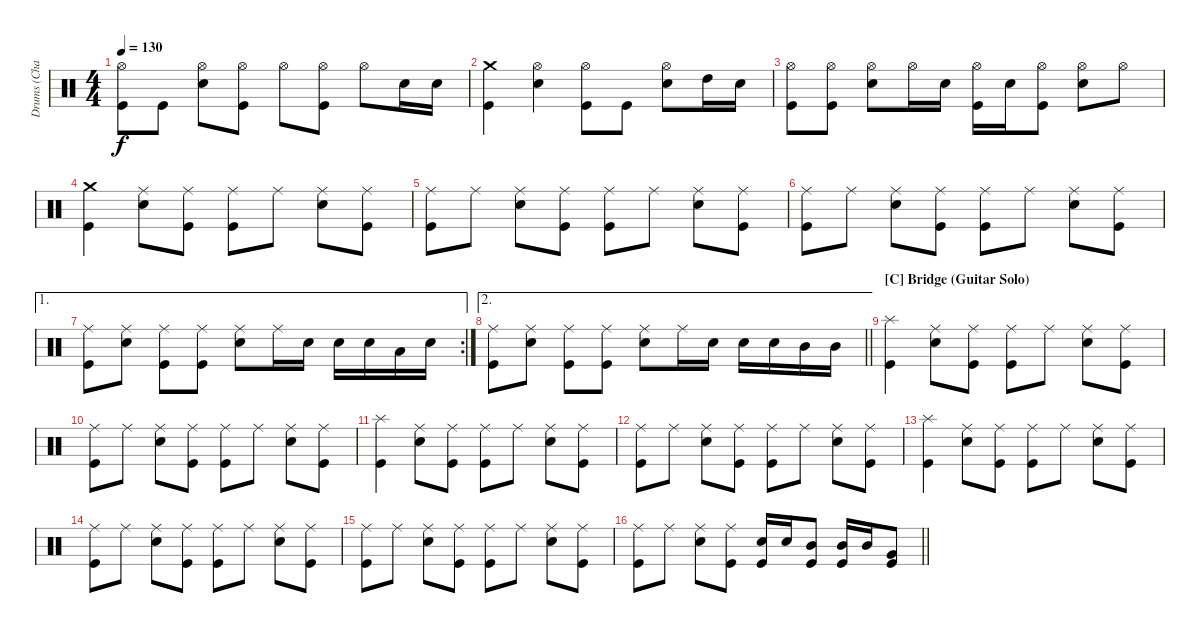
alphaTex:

\track ("Drums (Chad Channing)" "Drums (Cha") {instrument percussion}
\staff {score}
\articulation defaults
\ts (4 4)
\tempo 130
\clef neutral
\ks c
("Hi-Hat (open)" "Kick (hit)").8{dy f} "Kick (hit)".8 ("Hi-Hat (open)" "Snare (hit) 2").8 ("Hi-Hat (open)" "Kick (hit)").8 "Hi-Hat (open)".8 ("Hi-Hat (open)" "Kick (hit)").8 "Hi-Hat (open)".8 "Snare (hit) 2".16 "Snare (hit) 2".16 |
("Crash medium (hit)" "Kick (hit)").4 ("Hi-Hat (open)" "Snare (hit) 2").4 ("Hi-Hat (open)" "Kick (hit)").8 "Kick (hit)".8 ("Hi-Hat (open)" "Snare (hit) 2").8 "High Tom (hit)".16 "Snare (hit) 2".16 |
("Hi-Hat (open)" "Kick (hit)").8 ("Hi-Hat (open)" "Kick (hit)").8 ("Hi-Hat (open)" "Snare (hit) 2").8 "Hi-Hat (open)".16 "Snare (hit) 2".16 ("Hi-Hat (open)" "Kick (hit)").16 "Snare (hit) 2".16 ("Hi-Hat (open)" "Kick (hit)").8 ("Hi-Hat (open)" "Snare (hit) 2").8 "Hi-Hat (open)".8 |
("Crash medium (hit)" "Kick (hit)").4 ("Ride (middle)" "Snare (hit) 2").8 ("Ride (middle)" "Kick (hit)").8 ("Ride (middle)" "Kick (hit)").8 "Ride (middle)".8 ("Ride (middle)" "Snare (hit) 2").8 ("Ride (middle)" "Kick (hit)").8 |
("Ride (middle)" "Kick (hit)").8 "Ride (middle)".8 ("Ride (middle)" "Snare (hit) 2").8 ("Ride (middle)" "Kick (hit)").8 ("Ride (middle)" "Kick (hit)").8 "Ride (middle)".8 ("Ride (middle)" "Snare (hit) 2").8 ("Ride (middle)" "Kick (hit)").8 |
("Ride (middle)" "Kick (hit)").8 "Ride (middle)".8 ("Ride (middle)" "Snare (hit) 2").8 ("Ride (middle)" "Kick (hit)").8 ("Ride (middle)" "Kick (hit)").8 "Ride (middle)".8 ("Ride (middle)" "Snare (hit) 2").8 ("Ride (middle)" "Kick (hit)").8 |
\ae 1
\rc 2
("Ride (middle)" "Kick (hit)").8 ("Ride (middle)" "Snare (hit) 2").8 ("Ride (middle)" "Kick (hit)").8 ("Ride (middle)" "Kick (hit)").8 ("Ride (middle)" "Snare (hit) 2").8 "Ride (middle)".16 "Snare (hit) 2".16 "Snare (hit) 2".16 "Snare (hit) 2".16 "Low Floor Tom (hit)".16 "Snare (hit) 2".16 |
\ae 2
\barLineRight lightlight
("Ride (middle)" "Kick (hit)").8 ("Ride (middle)" "Snare (hit) 2").8 ("Ride (middle)" "Kick (hit)").8 ("Ride (middle)" "Kick (hit)").8 ("Ride (middle)" "Snare (hit) 2").8 "Ride (middle)".16 "Snare (hit) 2".16 "Snare (hit) 2".16 "Snare (hit) 2".16 "Mid Tom (hit)".16 "Mid Tom (hit)".16 |
\section ("" "[C] Bridge (Guitar Solo)")
("Splash (hit)" "Kick (hit)").4 ("Ride (middle)" "Snare (hit) 2").8 ("Ride (middle)" "Kick (hit)").8 ("Ride (middle)" "Kick (hit)").8 "Ride (middle)".8 ("Ride (middle)" "Snare (hit) 2").8 ("Ride (middle)" "Kick (hit)").8 |
("Ride (middle)" "Kick (hit)").8 "Ride (middle)".8 ("Ride (middle)" "Snare (hit) 2").8 ("Ride (middle)" "Kick (hit)").8 ("Ride (middle)" "Kick (hit)").8 "Ride (middle)".8 ("Ride (middle)" "Snare (hit) 2").8 ("Ride (middle)" "Kick (hit)").8 |
("Splash (hit)" "Kick (hit)").4 ("Ride (middle)" "Snare (hit) 2").8 ("Ride (middle)" "Kick (hit)").8 ("Ride (middle)" "Kick (hit)").8 "Ride (middle)".8 ("Ride (middle)" "Snare (hit) 2").8 ("Ride (middle)" "Kick (hit)").8 |
("Ride (middle)" "Kick (hit)").8 "Ride (middle)".8 ("Ride (middle)" "Snare (hit) 2").8 ("Ride (middle)" "Kick (hit)").8 ("Ride (middle)" "Kick (hit)").8 "Ride (middle)".8 ("Ride (middle)" "Snare (hit) 2").8 ("Ride (middle)" "Kick (hit)").8 |
("Splash (hit)" "Kick (hit)").4 ("Ride (middle)" "Snare (hit) 2").8 ("Ride (middle)" "Kick (hit)").8 ("Ride (middle)" "Kick (hit)").8 "Ride (middle)".8 ("Ride (middle)" "Snare (hit) 2").8 ("Ride (middle)" "Kick (hit)").8 |
("Ride (middle)" "Kick (hit)").8 "Ride (middle)".8 ("Ride (middle)" "Snare (hit) 2").8 ("Ride (middle)" "Kick (hit)").8 ("Ride (middle)" "Kick (hit)").8 "Ride (middle)".8 ("Ride (middle)" "Snare (hit) 2").8 ("Ride (middle)" "Kick (hit)").8 |
("Ride (middle)" "Kick (hit)").8 "Ride (middle)".8 ("Ride (middle)" "Snare (hit) 2").8 ("Ride (middle)" "Kick (hit)").8 ("Ride (middle)" "Kick (hit)").8 "Ride (middle)".8 ("Ride (middle)" "Snare (hit) 2").8 ("Ride (middle)" "Kick (hit)").8 |
\barLineRight lightlight
("Ride (middle)" "Kick (hit)").8 "Ride (middle)".8 ("Ride (middle)" "Snare (hit) 2").8 ("Ride (middle)" "Kick (hit)").8 ("Snare (hit) 2" "Kick (hit)").16 "Snare (hit) 2".16 ("Mid Tom (hit)" "Kick (hit)").8 ("Mid Tom (hit)" "Kick (hit)").16 "Mid Tom (hit)".16 ("Very Low Tom (hit)" "Kick (hit)").8
